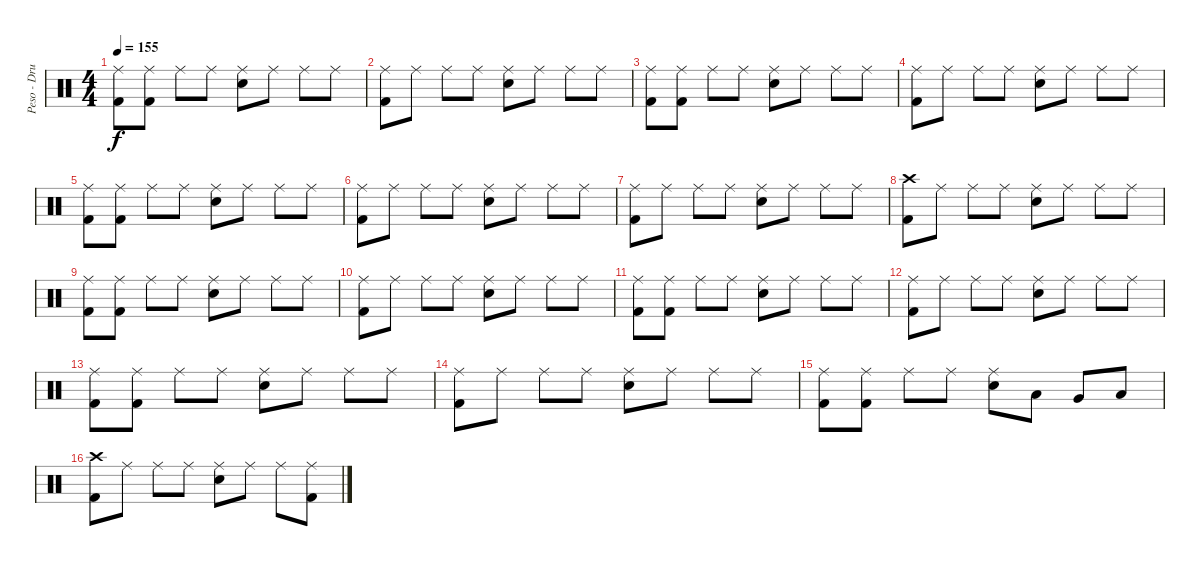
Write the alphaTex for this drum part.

\track ("Peso - Drums" "Peso - Dru") {instrument percussion}
\staff {score}
\articulation defaults
\ts (4 4)
\tempo 155
\clef neutral
\ks c
("Ride (middle)" "Kick (hit) 2").8{dy f} ("Ride (middle)" "Kick (hit) 2").8 "Ride (middle)".8 "Ride (middle)".8 ("Ride (middle)" "Electric Snare (hit)").8 "Ride (middle)".8 "Ride (middle)".8 "Ride (middle)".8 |
("Ride (middle)" "Kick (hit) 2").8 "Ride (middle)".8 "Ride (middle)".8 "Ride (middle)".8 ("Ride (middle)" "Electric Snare (hit)").8 "Ride (middle)".8 "Ride (middle)".8 "Ride (middle)".8 |
("Ride (middle)" "Kick (hit) 2").8 ("Ride (middle)" "Kick (hit) 2").8 "Ride (middle)".8 "Ride (middle)".8 ("Ride (middle)" "Electric Snare (hit)").8 "Ride (middle)".8 "Ride (middle)".8 "Ride (middle)".8 |
("Ride (middle)" "Kick (hit) 2").8 "Ride (middle)".8 "Ride (middle)".8 "Ride (middle)".8 ("Ride (middle)" "Electric Snare (hit)").8 "Ride (middle)".8 "Ride (middle)".8 "Ride (middle)".8 |
("Ride (middle)" "Kick (hit) 2").8 ("Ride (middle)" "Kick (hit) 2").8 "Ride (middle)".8 "Ride (middle)".8 ("Ride (middle)" "Electric Snare (hit)").8 "Ride (middle)".8 "Ride (middle)".8 "Ride (middle)".8 |
("Ride (middle)" "Kick (hit) 2").8 "Ride (middle)".8 "Ride (middle)".8 "Ride (middle)".8 ("Ride (middle)" "Electric Snare (hit)").8 "Ride (middle)".8 "Ride (middle)".8 "Ride (middle)".8 |
("Ride (middle)" "Kick (hit) 2").8 "Ride (middle)".8 "Ride (middle)".8 "Ride (middle)".8 ("Ride (middle)" "Electric Snare (hit)").8 "Ride (middle)".8 "Ride (middle)".8 "Ride (middle)".8 |
("Crash high (hit)" "Kick (hit) 2").8 "Ride (middle)".8 "Ride (middle)".8 "Ride (middle)".8 ("Ride (middle)" "Electric Snare (hit)").8 "Ride (middle)".8 "Ride (middle)".8 "Ride (middle)".8 |
("Ride (middle)" "Kick (hit) 2").8 ("Ride (middle)" "Kick (hit) 2").8 "Ride (middle)".8 "Ride (middle)".8 ("Ride (middle)" "Electric Snare (hit)").8 "Ride (middle)".8 "Ride (middle)".8 "Ride (middle)".8 |
("Ride (middle)" "Kick (hit) 2").8 "Ride (middle)".8 "Ride (middle)".8 "Ride (middle)".8 ("Ride (middle)" "Electric Snare (hit)").8 "Ride (middle)".8 "Ride (middle)".8 "Ride (middle)".8 |
("Ride (middle)" "Kick (hit) 2").8 ("Ride (middle)" "Kick (hit) 2").8 "Ride (middle)".8 "Ride (middle)".8 ("Ride (middle)" "Electric Snare (hit)").8 "Ride (middle)".8 "Ride (middle)".8 "Ride (middle)".8 |
("Ride (middle)" "Kick (hit) 2").8 "Ride (middle)".8 "Ride (middle)".8 "Ride (middle)".8 ("Ride (middle)" "Electric Snare (hit)").8 "Ride (middle)".8 "Ride (middle)".8 "Ride (middle)".8 |
("Ride (middle)" "Kick (hit) 2").8 ("Ride (middle)" "Kick (hit) 2").8 "Ride (middle)".8 "Ride (middle)".8 ("Ride (middle)" "Electric Snare (hit)").8 "Ride (middle)".8 "Ride (middle)".8 "Ride (middle)".8 |
("Ride (middle)" "Kick (hit) 2").8 "Ride (middle)".8 "Ride (middle)".8 "Ride (middle)".8 ("Ride (middle)" "Electric Snare (hit)").8 "Ride (middle)".8 "Ride (middle)".8 "Ride (middle)".8 |
("Ride (middle)" "Kick (hit) 2").8 ("Ride (middle)" "Kick (hit) 2").8 "Ride (middle)".8 "Ride (middle)".8 ("Ride (middle)" "Electric Snare (hit)").8 "Low Tom (hit)".8 "Very Low Tom (hit)".8 "Low Floor Tom (hit)".8 |
("Crash high (hit)" "Kick (hit) 2").8 "Ride (middle)".8 "Ride (middle)".8 "Ride (middle)".8 ("Ride (middle)" "Electric Snare (hit)").8 "Ride (middle)".8 "Ride (middle)".8 ("Ride (middle)" "Kick (hit) 2").8
